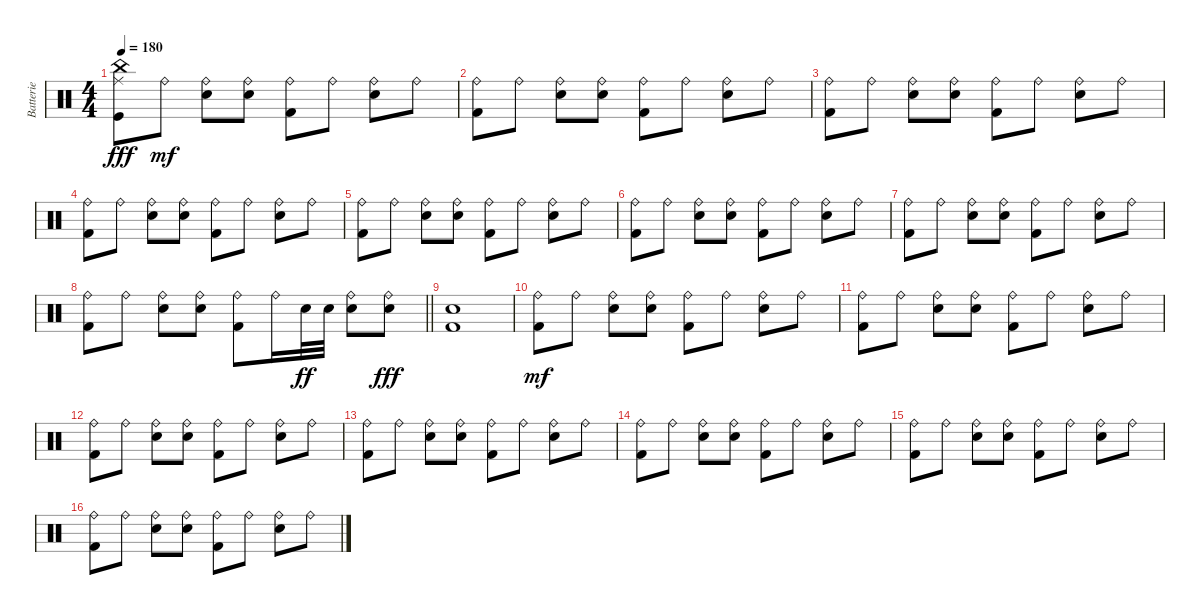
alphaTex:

\track ("Batterie" "Batterie") {instrument percussion}
\staff {score}
\articulation defaults
\ts (4 4)
\tempo 180
\clef neutral
\ks c
("Kick (hit)" "Ride (middle)" "China (hit)").8{dy fff} "Ride (bell)".8{dy mf} ("Electric Snare (hit)" "Ride (bell)").8 ("Electric Snare (hit)" "Ride (bell)").8 ("Kick (hit) 2" "Ride (bell)").8 "Ride (bell)".8 ("Electric Snare (hit)" "Ride (bell)").8 "Ride (bell)".8 |
("Kick (hit) 2" "Ride (bell)").8 "Ride (bell)".8 ("Electric Snare (hit)" "Ride (bell)").8 ("Electric Snare (hit)" "Ride (bell)").8 ("Kick (hit) 2" "Ride (bell)").8 "Ride (bell)".8 ("Electric Snare (hit)" "Ride (bell)").8 "Ride (bell)".8 |
("Kick (hit) 2" "Ride (bell)").8 "Ride (bell)".8 ("Electric Snare (hit)" "Ride (bell)").8 ("Electric Snare (hit)" "Ride (bell)").8 ("Kick (hit) 2" "Ride (bell)").8 "Ride (bell)".8 ("Electric Snare (hit)" "Ride (bell)").8 "Ride (bell)".8 |
("Kick (hit) 2" "Ride (bell)").8 "Ride (bell)".8 ("Electric Snare (hit)" "Ride (bell)").8 ("Electric Snare (hit)" "Ride (bell)").8 ("Kick (hit) 2" "Ride (bell)").8 "Ride (bell)".8 ("Electric Snare (hit)" "Ride (bell)").8 "Ride (bell)".8 |
("Kick (hit) 2" "Ride (bell)").8 "Ride (bell)".8 ("Electric Snare (hit)" "Ride (bell)").8 ("Electric Snare (hit)" "Ride (bell)").8 ("Kick (hit) 2" "Ride (bell)").8 "Ride (bell)".8 ("Electric Snare (hit)" "Ride (bell)").8 "Ride (bell)".8 |
("Kick (hit) 2" "Ride (bell)").8 "Ride (bell)".8 ("Electric Snare (hit)" "Ride (bell)").8 ("Electric Snare (hit)" "Ride (bell)").8 ("Kick (hit) 2" "Ride (bell)").8 "Ride (bell)".8 ("Electric Snare (hit)" "Ride (bell)").8 "Ride (bell)".8 |
("Kick (hit) 2" "Ride (bell)").8 "Ride (bell)".8 ("Electric Snare (hit)" "Ride (bell)").8 ("Electric Snare (hit)" "Ride (bell)").8 ("Kick (hit) 2" "Ride (bell)").8 "Ride (bell)".8 ("Electric Snare (hit)" "Ride (bell)").8 "Ride (bell)".8 |
\barLineRight lightlight
("Kick (hit) 2" "Ride (bell)").8 "Ride (bell)".8 ("Electric Snare (hit)" "Ride (bell)").8 ("Electric Snare (hit)" "Ride (bell)").8 ("Kick (hit) 2" "Ride (bell)").8 "Ride (bell)".16 "Electric Snare (hit)".32{dy ff} "Electric Snare (hit)".32 ("Electric Snare (hit)" "Ride (bell)").8 ("Ride (bell)" "Electric Snare (hit)").8{dy fff} |
("Kick (hit) 2" "Electric Snare (hit)").1 |
("Kick (hit) 2" "Ride (bell)").8{dy mf} "Ride (bell)".8 ("Electric Snare (hit)" "Ride (bell)").8 ("Electric Snare (hit)" "Ride (bell)").8 ("Kick (hit) 2" "Ride (bell)").8 "Ride (bell)".8 ("Electric Snare (hit)" "Ride (bell)").8 "Ride (bell)".8 |
("Kick (hit) 2" "Ride (bell)").8 "Ride (bell)".8 ("Electric Snare (hit)" "Ride (bell)").8 ("Electric Snare (hit)" "Ride (bell)").8 ("Kick (hit) 2" "Ride (bell)").8 "Ride (bell)".8 ("Electric Snare (hit)" "Ride (bell)").8 "Ride (bell)".8 |
("Kick (hit) 2" "Ride (bell)").8 "Ride (bell)".8 ("Electric Snare (hit)" "Ride (bell)").8 ("Electric Snare (hit)" "Ride (bell)").8 ("Kick (hit) 2" "Ride (bell)").8 "Ride (bell)".8 ("Electric Snare (hit)" "Ride (bell)").8 "Ride (bell)".8 |
("Kick (hit) 2" "Ride (bell)").8 "Ride (bell)".8 ("Electric Snare (hit)" "Ride (bell)").8 ("Electric Snare (hit)" "Ride (bell)").8 ("Kick (hit) 2" "Ride (bell)").8 "Ride (bell)".8 ("Electric Snare (hit)" "Ride (bell)").8 "Ride (bell)".8 |
("Kick (hit) 2" "Ride (bell)").8 "Ride (bell)".8 ("Electric Snare (hit)" "Ride (bell)").8 ("Electric Snare (hit)" "Ride (bell)").8 ("Kick (hit) 2" "Ride (bell)").8 "Ride (bell)".8 ("Electric Snare (hit)" "Ride (bell)").8 "Ride (bell)".8 |
("Kick (hit) 2" "Ride (bell)").8 "Ride (bell)".8 ("Electric Snare (hit)" "Ride (bell)").8 ("Electric Snare (hit)" "Ride (bell)").8 ("Kick (hit) 2" "Ride (bell)").8 "Ride (bell)".8 ("Electric Snare (hit)" "Ride (bell)").8 "Ride (bell)".8 |
("Kick (hit) 2" "Ride (bell)").8 "Ride (bell)".8 ("Electric Snare (hit)" "Ride (bell)").8 ("Electric Snare (hit)" "Ride (bell)").8 ("Kick (hit) 2" "Ride (bell)").8 "Ride (bell)".8 ("Electric Snare (hit)" "Ride (bell)").8 "Ride (bell)".8
